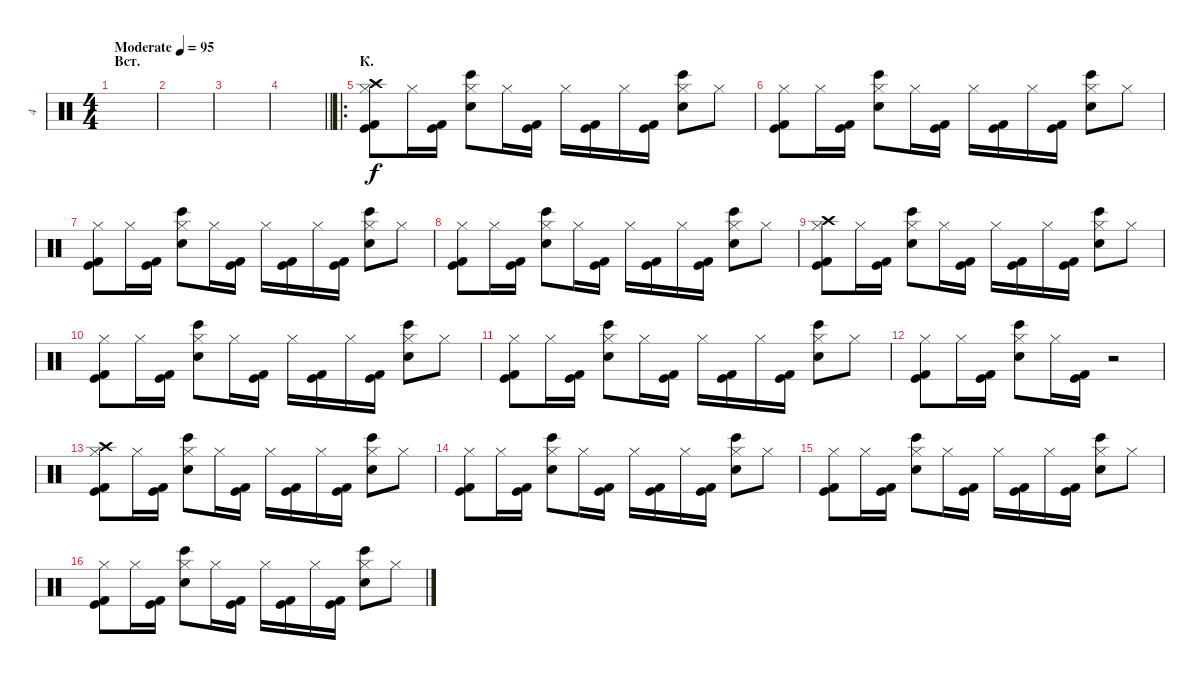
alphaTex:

\track ("4" "4") {instrument percussion}
\staff {score}
\articulation defaults
\ts (4 4)
\section ("" "Вст.")
\tempo (95 "Moderate")
\clef neutral
\ks c
|
|
|
\barLineRight lightlight
|
\ro
\section ("" "К.")
("Kick (hit) 2" "Kick (hit)" "Hi-Hat (closed)" "Crash high (hit)").8 "Hi-Hat (closed)".16 ("Kick (hit) 2" "Kick (hit)").16 ("Snare (hit) 2" "Hi-Hat (closed)" "Bongo High (hit)").8 "Hi-Hat (closed)".16 ("Kick (hit) 2" "Kick (hit)").16 "Hi-Hat (closed)".16 ("Kick (hit) 2" "Kick (hit)").16 "Hi-Hat (closed)".16 ("Kick (hit) 2" "Kick (hit)").16 ("Snare (hit) 2" "Hi-Hat (closed)" "Bongo High (hit)").8 "Hi-Hat (closed)".8 |
("Kick (hit) 2" "Kick (hit)" "Hi-Hat (closed)").8 "Hi-Hat (closed)".16 ("Kick (hit) 2" "Kick (hit)").16 ("Snare (hit) 2" "Hi-Hat (closed)" "Bongo High (hit)").8 "Hi-Hat (closed)".16 ("Kick (hit) 2" "Kick (hit)").16 "Hi-Hat (closed)".16 ("Kick (hit) 2" "Kick (hit)").16 "Hi-Hat (closed)".16 ("Kick (hit) 2" "Kick (hit)").16 ("Snare (hit) 2" "Hi-Hat (closed)" "Bongo High (hit)").8 "Hi-Hat (closed)".8 |
("Kick (hit) 2" "Kick (hit)" "Hi-Hat (closed)").8 "Hi-Hat (closed)".16 ("Kick (hit) 2" "Kick (hit)").16 ("Snare (hit) 2" "Hi-Hat (closed)" "Bongo High (hit)").8 "Hi-Hat (closed)".16 ("Kick (hit) 2" "Kick (hit)").16 "Hi-Hat (closed)".16 ("Kick (hit) 2" "Kick (hit)").16 "Hi-Hat (closed)".16 ("Kick (hit) 2" "Kick (hit)").16 ("Snare (hit) 2" "Hi-Hat (closed)" "Bongo High (hit)").8 "Hi-Hat (closed)".8 |
("Kick (hit) 2" "Kick (hit)" "Hi-Hat (closed)").8 "Hi-Hat (closed)".16 ("Kick (hit) 2" "Kick (hit)").16 ("Snare (hit) 2" "Hi-Hat (closed)" "Bongo High (hit)").8 "Hi-Hat (closed)".16 ("Kick (hit) 2" "Kick (hit)").16 "Hi-Hat (closed)".16 ("Kick (hit) 2" "Kick (hit)").16 "Hi-Hat (closed)".16 ("Kick (hit) 2" "Kick (hit)").16 ("Snare (hit) 2" "Hi-Hat (closed)" "Bongo High (hit)").8 "Hi-Hat (closed)".8 |
("Kick (hit) 2" "Kick (hit)" "Hi-Hat (closed)" "Crash high (hit)").8 "Hi-Hat (closed)".16 ("Kick (hit) 2" "Kick (hit)").16 ("Snare (hit) 2" "Hi-Hat (closed)" "Bongo High (hit)").8 "Hi-Hat (closed)".16 ("Kick (hit) 2" "Kick (hit)").16 "Hi-Hat (closed)".16 ("Kick (hit) 2" "Kick (hit)").16 "Hi-Hat (closed)".16 ("Kick (hit) 2" "Kick (hit)").16 ("Snare (hit) 2" "Hi-Hat (closed)" "Bongo High (hit)").8 "Hi-Hat (closed)".8 |
("Kick (hit) 2" "Kick (hit)" "Hi-Hat (closed)").8 "Hi-Hat (closed)".16 ("Kick (hit) 2" "Kick (hit)").16 ("Snare (hit) 2" "Hi-Hat (closed)" "Bongo High (hit)").8 "Hi-Hat (closed)".16 ("Kick (hit) 2" "Kick (hit)").16 "Hi-Hat (closed)".16 ("Kick (hit) 2" "Kick (hit)").16 "Hi-Hat (closed)".16 ("Kick (hit) 2" "Kick (hit)").16 ("Snare (hit) 2" "Hi-Hat (closed)" "Bongo High (hit)").8 "Hi-Hat (closed)".8 |
("Kick (hit) 2" "Kick (hit)" "Hi-Hat (closed)").8 "Hi-Hat (closed)".16 ("Kick (hit) 2" "Kick (hit)").16 ("Snare (hit) 2" "Hi-Hat (closed)" "Bongo High (hit)").8 "Hi-Hat (closed)".16 ("Kick (hit) 2" "Kick (hit)").16 "Hi-Hat (closed)".16 ("Kick (hit) 2" "Kick (hit)").16 "Hi-Hat (closed)".16 ("Kick (hit) 2" "Kick (hit)").16 ("Snare (hit) 2" "Hi-Hat (closed)" "Bongo High (hit)").8 "Hi-Hat (closed)".8 |
("Kick (hit) 2" "Kick (hit)" "Hi-Hat (closed)").8 "Hi-Hat (closed)".16 ("Kick (hit) 2" "Kick (hit)").16 ("Snare (hit) 2" "Hi-Hat (closed)" "Bongo High (hit)").8 "Hi-Hat (closed)".16 ("Kick (hit) 2" "Kick (hit)").16 r.2 |
("Kick (hit) 2" "Kick (hit)" "Hi-Hat (closed)" "Crash high (hit)").8 "Hi-Hat (closed)".16 ("Kick (hit) 2" "Kick (hit)").16 ("Snare (hit) 2" "Hi-Hat (closed)" "Bongo High (hit)").8 "Hi-Hat (closed)".16 ("Kick (hit) 2" "Kick (hit)").16 "Hi-Hat (closed)".16 ("Kick (hit) 2" "Kick (hit)").16 "Hi-Hat (closed)".16 ("Kick (hit) 2" "Kick (hit)").16 ("Snare (hit) 2" "Hi-Hat (closed)" "Bongo High (hit)").8 "Hi-Hat (closed)".8 |
("Kick (hit) 2" "Kick (hit)" "Hi-Hat (closed)").8 "Hi-Hat (closed)".16 ("Kick (hit) 2" "Kick (hit)").16 ("Snare (hit) 2" "Hi-Hat (closed)" "Bongo High (hit)").8 "Hi-Hat (closed)".16 ("Kick (hit) 2" "Kick (hit)").16 "Hi-Hat (closed)".16 ("Kick (hit) 2" "Kick (hit)").16 "Hi-Hat (closed)".16 ("Kick (hit) 2" "Kick (hit)").16 ("Snare (hit) 2" "Hi-Hat (closed)" "Bongo High (hit)").8 "Hi-Hat (closed)".8 |
("Kick (hit) 2" "Kick (hit)" "Hi-Hat (closed)").8 "Hi-Hat (closed)".16 ("Kick (hit) 2" "Kick (hit)").16 ("Snare (hit) 2" "Hi-Hat (closed)" "Bongo High (hit)").8 "Hi-Hat (closed)".16 ("Kick (hit) 2" "Kick (hit)").16 "Hi-Hat (closed)".16 ("Kick (hit) 2" "Kick (hit)").16 "Hi-Hat (closed)".16 ("Kick (hit) 2" "Kick (hit)").16 ("Snare (hit) 2" "Hi-Hat (closed)" "Bongo High (hit)").8 "Hi-Hat (closed)".8 |
("Kick (hit) 2" "Kick (hit)" "Hi-Hat (closed)").8 "Hi-Hat (closed)".16 ("Kick (hit) 2" "Kick (hit)").16 ("Snare (hit) 2" "Hi-Hat (closed)" "Bongo High (hit)").8 "Hi-Hat (closed)".16 ("Kick (hit) 2" "Kick (hit)").16 "Hi-Hat (closed)".16 ("Kick (hit) 2" "Kick (hit)").16 "Hi-Hat (closed)".16 ("Kick (hit) 2" "Kick (hit)").16 ("Snare (hit) 2" "Hi-Hat (closed)" "Bongo High (hit)").8 "Hi-Hat (closed)".8
